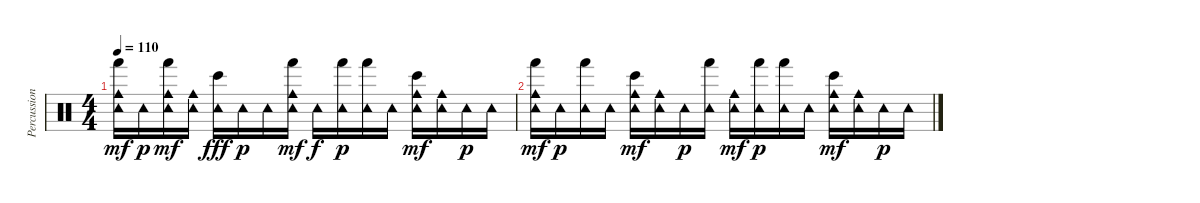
\track ("Percussions" "Percussion") {instrument percussion}
\staff {score}
\articulation defaults
\ts (4 4)
\tempo 110
\clef neutral
\ks c
("Hand (hit)" "Tambourine (hit)" "Cowbell medium (hit)").16{dy mf} "Tambourine (hit)".16{dy p} ("Hand (hit)" "Tambourine (hit)" "Cowbell medium (hit)").16{dy mf} ("Tambourine (hit)" "Cowbell medium (hit)").16 ("Bongo High (hit)" "Tambourine (hit)").16{dy fff} "Tambourine (hit)".16{dy p} "Tambourine (hit)".16 ("Hand (hit)" "Tambourine (hit)" "Cowbell medium (hit)").16{dy mf} "Tambourine (hit)".16{dy f} ("Hand (hit)" "Tambourine (hit)").16{dy p} ("Hand (hit)" "Tambourine (hit)").16 "Tambourine (hit)".16 ("Bongo High (hit)" "Tambourine (hit)" "Cowbell medium (hit)").16{dy mf} ("Tambourine (hit)" "Cowbell medium (hit)").16 "Tambourine (hit)".16{dy p} "Tambourine (hit)".16 |
("Hand (hit)" "Tambourine (hit)" "Cowbell medium (hit)").16{dy mf} "Tambourine (hit)".16{dy p} ("Hand (hit)" "Tambourine (hit)").16 "Tambourine (hit)".16 ("Bongo High (hit)" "Tambourine (hit)" "Cowbell medium (hit)").16{dy mf} ("Tambourine (hit)" "Cowbell medium (hit)").16 "Tambourine (hit)".16{dy p} ("Hand (hit)" "Tambourine (hit)").16 ("Tambourine (hit)" "Cowbell medium (hit)").16{dy mf} ("Hand (hit)" "Tambourine (hit)").16{dy p} ("Hand (hit)" "Tambourine (hit)").16 "Tambourine (hit)".16 ("Bongo High (hit)" "Tambourine (hit)" "Cowbell medium (hit)").16{dy mf} ("Tambourine (hit)" "Cowbell medium (hit)").16 "Tambourine (hit)".16{dy p} "Tambourine (hit)".16
